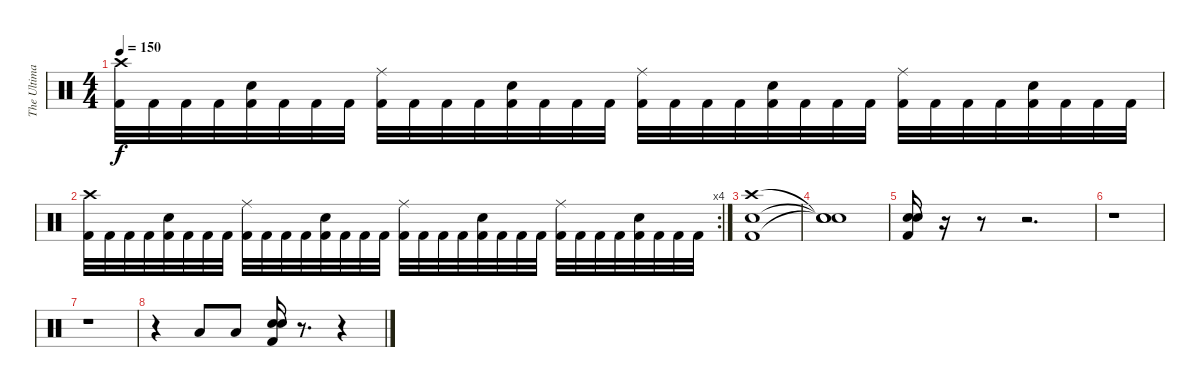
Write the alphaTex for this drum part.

\track ("The Ultimate hero" "The Ultima") {instrument percussion}
\staff {score}
\articulation defaults
\ts (4 4)
\tempo 150
\clef neutral
\ks c
("Crash high (hit)" "Kick (hit) 2").32{dy f} "Kick (hit) 2".32 "Kick (hit) 2".32 "Kick (hit) 2".32 ("Snare (hit) 2" "Kick (hit) 2").32 "Kick (hit) 2".32 "Kick (hit) 2".32 "Kick (hit) 2".32 ("Ride (middle)" "Kick (hit) 2").32 "Kick (hit) 2".32 "Kick (hit) 2".32 "Kick (hit) 2".32 ("Snare (hit) 2" "Kick (hit) 2").32 "Kick (hit) 2".32 "Kick (hit) 2".32 "Kick (hit) 2".32 ("Ride (middle)" "Kick (hit) 2").32 "Kick (hit) 2".32 "Kick (hit) 2".32 "Kick (hit) 2".32 ("Snare (hit) 2" "Kick (hit) 2").32 "Kick (hit) 2".32 "Kick (hit) 2".32 "Kick (hit) 2".32 ("Ride (middle)" "Kick (hit) 2").32 "Kick (hit) 2".32 "Kick (hit) 2".32 "Kick (hit) 2".32 ("Snare (hit) 2" "Kick (hit) 2").32 "Kick (hit) 2".32 "Kick (hit) 2".32 "Kick (hit) 2".32 |
\rc 4
("Crash high (hit)" "Kick (hit) 2").32 "Kick (hit) 2".32 "Kick (hit) 2".32 "Kick (hit) 2".32 ("Snare (hit) 2" "Kick (hit) 2").32 "Kick (hit) 2".32 "Kick (hit) 2".32 "Kick (hit) 2".32 ("Ride (middle)" "Kick (hit) 2").32 "Kick (hit) 2".32 "Kick (hit) 2".32 "Kick (hit) 2".32 ("Snare (hit) 2" "Kick (hit) 2").32 "Kick (hit) 2".32 "Kick (hit) 2".32 "Kick (hit) 2".32 ("Ride (middle)" "Kick (hit) 2").32 "Kick (hit) 2".32 "Kick (hit) 2".32 "Kick (hit) 2".32 ("Snare (hit) 2" "Kick (hit) 2").32 "Kick (hit) 2".32 "Kick (hit) 2".32 "Kick (hit) 2".32 ("Ride (middle)" "Kick (hit) 2").32 "Kick (hit) 2".32 "Kick (hit) 2".32 "Kick (hit) 2".32 ("Snare (hit) 2" "Kick (hit) 2").32 "Kick (hit) 2".32 "Kick (hit) 2".32 "Kick (hit) 2".32 |
("Crash high (hit)" "Snare (hit) 2" "Kick (hit) 2").1 |
("Snare (hit)"{t} "Snare (hit)"{t} "Snare (hit)"{t}).1 |
("Electric Snare (hit)" "Snare (hit) 2" "Kick (hit) 2").16 r.16 r.8 r.2{d} |
r.1 |
r.1 |
r.4 "Low Tom (hit)".8 "Low Tom (hit)".8 ("Electric Snare (hit)" "Snare (hit) 2" "Kick (hit) 2").16 r.8{d} r.4
